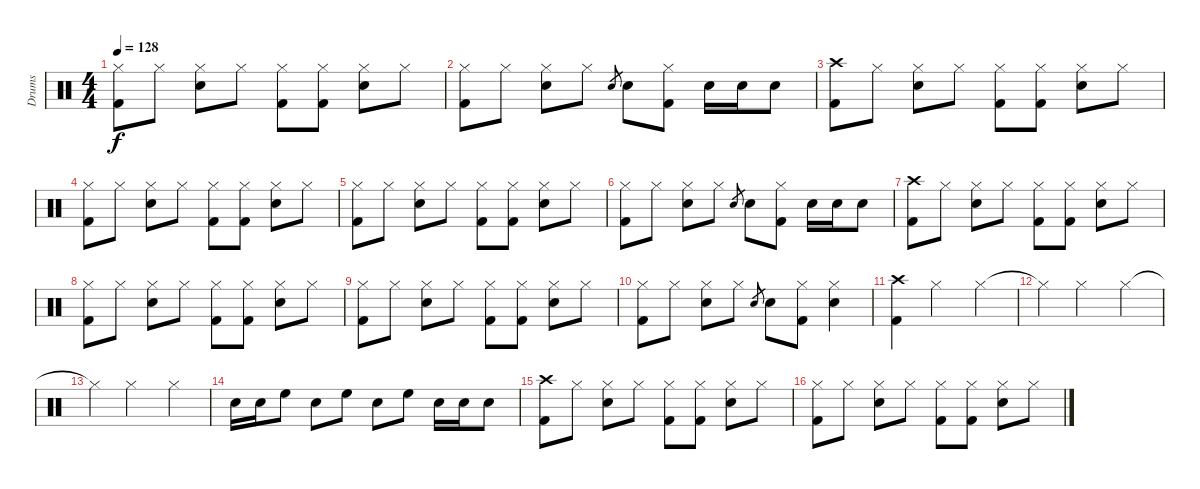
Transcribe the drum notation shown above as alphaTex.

\track ("Drums" "Drums") {instrument percussion}
\staff {score}
\articulation defaults
\ts (4 4)
\tempo 128
\clef neutral
\ks c
("Hi-Hat (closed)" "Kick (hit) 2").8{dy f} "Hi-Hat (closed)".8 ("Hi-Hat (closed)" "Snare (hit) 2").8 "Hi-Hat (closed)".8 ("Hi-Hat (closed)" "Kick (hit) 2").8 ("Hi-Hat (closed)" "Kick (hit) 2").8 ("Hi-Hat (closed)" "Snare (hit) 2").8 "Hi-Hat (closed)".8 |
("Hi-Hat (closed)" "Kick (hit) 2").8 "Hi-Hat (closed)".8 ("Hi-Hat (closed)" "Snare (hit) 2").8 "Hi-Hat (closed)".8 "Snare (hit) 2".8{gr} "Snare (hit) 2".8 ("Hi-Hat (closed)" "Kick (hit) 2").8 "Snare (hit) 2".16 "Snare (hit) 2".16 "Snare (hit) 2".8 |
("Crash high (hit)" "Kick (hit) 2").8 "Hi-Hat (closed)".8 ("Hi-Hat (closed)" "Snare (hit) 2").8 "Hi-Hat (closed)".8 ("Hi-Hat (closed)" "Kick (hit) 2").8 ("Hi-Hat (closed)" "Kick (hit) 2").8 ("Hi-Hat (closed)" "Snare (hit) 2").8 "Hi-Hat (closed)".8 |
("Hi-Hat (closed)" "Kick (hit) 2").8 "Hi-Hat (closed)".8 ("Hi-Hat (closed)" "Snare (hit) 2").8 "Hi-Hat (closed)".8 ("Hi-Hat (closed)" "Kick (hit) 2").8 ("Hi-Hat (closed)" "Kick (hit) 2").8 ("Hi-Hat (closed)" "Snare (hit) 2").8 "Hi-Hat (closed)".8 |
("Hi-Hat (closed)" "Kick (hit) 2").8 "Hi-Hat (closed)".8 ("Hi-Hat (closed)" "Snare (hit) 2").8 "Hi-Hat (closed)".8 ("Hi-Hat (closed)" "Kick (hit) 2").8 ("Hi-Hat (closed)" "Kick (hit) 2").8 ("Hi-Hat (closed)" "Snare (hit) 2").8 "Hi-Hat (closed)".8 |
("Hi-Hat (closed)" "Kick (hit) 2").8 "Hi-Hat (closed)".8 ("Hi-Hat (closed)" "Snare (hit) 2").8 "Hi-Hat (closed)".8 "Snare (hit) 2".8{gr} "Snare (hit) 2".8 ("Hi-Hat (closed)" "Kick (hit) 2").8 "Snare (hit) 2".16 "Snare (hit) 2".16 "Snare (hit) 2".8 |
("Crash high (hit)" "Kick (hit) 2").8 "Hi-Hat (closed)".8 ("Hi-Hat (closed)" "Snare (hit) 2").8 "Hi-Hat (closed)".8 ("Hi-Hat (closed)" "Kick (hit) 2").8 ("Hi-Hat (closed)" "Kick (hit) 2").8 ("Hi-Hat (closed)" "Snare (hit) 2").8 "Hi-Hat (closed)".8 |
("Hi-Hat (closed)" "Kick (hit) 2").8 "Hi-Hat (closed)".8 ("Hi-Hat (closed)" "Snare (hit) 2").8 "Hi-Hat (closed)".8 ("Hi-Hat (closed)" "Kick (hit) 2").8 ("Hi-Hat (closed)" "Kick (hit) 2").8 ("Hi-Hat (closed)" "Snare (hit) 2").8 "Hi-Hat (closed)".8 |
("Hi-Hat (closed)" "Kick (hit) 2").8 "Hi-Hat (closed)".8 ("Hi-Hat (closed)" "Snare (hit) 2").8 "Hi-Hat (closed)".8 ("Hi-Hat (closed)" "Kick (hit) 2").8 ("Hi-Hat (closed)" "Kick (hit) 2").8 ("Hi-Hat (closed)" "Snare (hit) 2").8 "Hi-Hat (closed)".8 |
("Hi-Hat (closed)" "Kick (hit) 2").8 "Hi-Hat (closed)".8 ("Hi-Hat (closed)" "Snare (hit) 2").8 "Hi-Hat (closed)".8 "Snare (hit) 2".8{gr} "Snare (hit) 2".8 ("Hi-Hat (closed)" "Kick (hit) 2").8 ("Hi-Hat (closed)" "Snare (hit) 2").4 |
("Crash high (hit)" "Kick (hit) 2").4 "Hi-Hat (closed)".2 "Hi-Hat (closed)".4 |
"Hi-Hat (closed)"{t}.4 "Hi-Hat (closed)".2 "Hi-Hat (closed)".4 |
"Hi-Hat (closed)"{t}.4 "Hi-Hat (closed)".2 "Hi-Hat (closed)".4 |
"Snare (hit) 2".16 "Snare (hit) 2".16 "High Floor Tom (hit)".8 "Snare (hit) 2".8 "High Floor Tom (hit)".8 "Snare (hit) 2".8 "High Floor Tom (hit)".8 "Snare (hit) 2".16 "Snare (hit) 2".16 "Snare (hit) 2".8 |
("Crash high (hit)" "Kick (hit) 2").8 "Hi-Hat (closed)".8 ("Hi-Hat (closed)" "Snare (hit) 2").8 "Hi-Hat (closed)".8 ("Hi-Hat (closed)" "Kick (hit) 2").8 ("Hi-Hat (closed)" "Kick (hit) 2").8 ("Hi-Hat (closed)" "Snare (hit) 2").8 "Hi-Hat (closed)".8 |
("Hi-Hat (closed)" "Kick (hit) 2").8 "Hi-Hat (closed)".8 ("Hi-Hat (closed)" "Snare (hit) 2").8 "Hi-Hat (closed)".8 ("Hi-Hat (closed)" "Kick (hit) 2").8 ("Hi-Hat (closed)" "Kick (hit) 2").8 ("Hi-Hat (closed)" "Snare (hit) 2").8 "Hi-Hat (closed)".8
